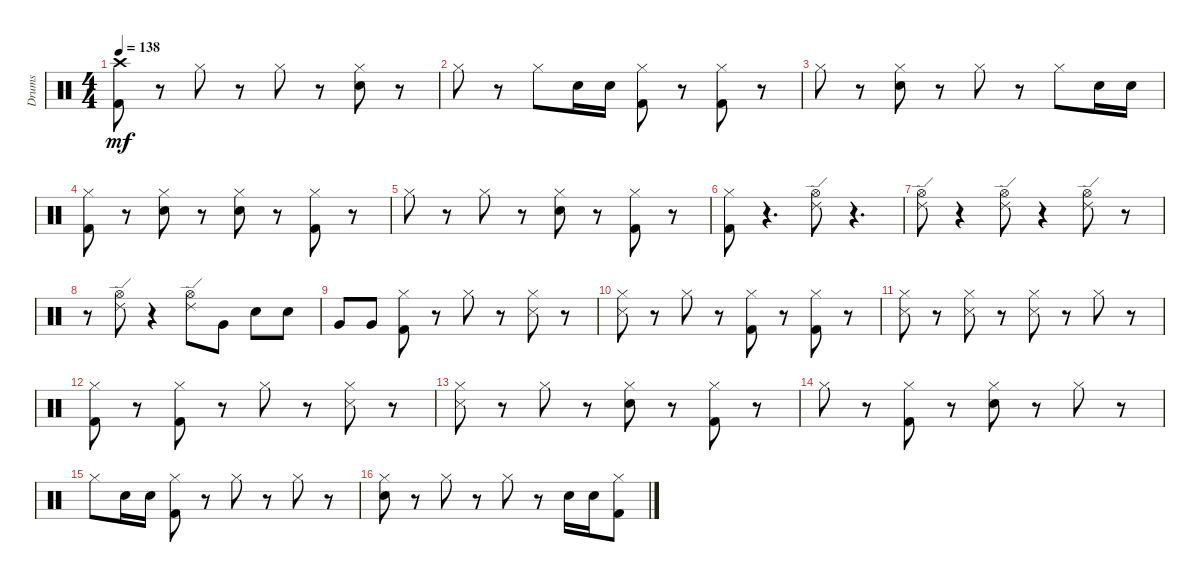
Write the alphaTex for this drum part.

\track ("Drums" "Drums") {instrument percussion}
\staff {score}
\articulation defaults
\ts (4 4)
\tempo 138
\clef neutral
\ks c
("Kick (hit) 2" "Crash high (hit)").8{dy mf} r.8 "Hi-Hat (closed)".8 r.8 "Hi-Hat (closed)".8 r.8 ("Electric Snare (hit)" "Hi-Hat (closed)").8 r.8 |
"Hi-Hat (closed)".8 r.8 "Hi-Hat (closed)".8 "Electric Snare (hit)".16 "Electric Snare (hit)".16 ("Kick (hit) 2" "Hi-Hat (closed)").8 r.8 ("Kick (hit) 2" "Hi-Hat (closed)").8 r.8 |
"Hi-Hat (closed)".8 r.8 ("Electric Snare (hit)" "Hi-Hat (closed)").8 r.8 "Hi-Hat (closed)".8 r.8 "Hi-Hat (closed)".8 "Electric Snare (hit)".16 "Electric Snare (hit)".16 |
("Kick (hit) 2" "Hi-Hat (closed)").8 r.8 ("Electric Snare (hit)" "Hi-Hat (closed)").8 r.8 ("Electric Snare (hit)" "Hi-Hat (closed)").8 r.8 ("Kick (hit) 2" "Hi-Hat (closed)").8 r.8 |
"Hi-Hat (closed)".8 r.8 "Hi-Hat (closed)".8 r.8 ("Electric Snare (hit)" "Hi-Hat (closed)").8 r.8 ("Kick (hit) 2" "Hi-Hat (closed)").8 r.8 |
("Kick (hit) 2" "Hi-Hat (closed)").8 r.4{d} ("Hi-Hat (open)" "Ride (edge) 2").8 r.4{d} |
("Hi-Hat (open)" "Ride (edge) 2").8 r.4 ("Hi-Hat (open)" "Ride (edge) 2").8 r.4 ("Hi-Hat (open)" "Ride (edge) 2").8 r.8 |
r.8 ("Hi-Hat (open)" "Ride (edge) 2").8 r.4 ("Hi-Hat (open)" "Ride (edge) 2").8 "Very Low Tom (hit)".8 "Electric Snare (hit)".8 "Electric Snare (hit)".8 |
"Very Low Tom (hit)".8 "Very Low Tom (hit)".8 ("Kick (hit) 2" "Hi-Hat (closed)").8 r.8 "Hi-Hat (closed)".8 r.8 ("Snare (side stick) 3" "Hi-Hat (closed)").8 r.8 |
("Snare (side stick) 3" "Hi-Hat (closed)").8 r.8 "Hi-Hat (closed)".8 r.8 ("Kick (hit) 2" "Hi-Hat (closed)").8 r.8 ("Kick (hit) 2" "Hi-Hat (closed)").8 r.8 |
("Snare (side stick) 3" "Hi-Hat (closed)").8 r.8 ("Snare (side stick) 3" "Hi-Hat (closed)").8 r.8 ("Snare (side stick) 3" "Hi-Hat (closed)").8 r.8 "Hi-Hat (closed)".8 r.8 |
("Kick (hit) 2" "Hi-Hat (closed)").8 r.8 ("Kick (hit) 2" "Hi-Hat (closed)").8 r.8 "Hi-Hat (closed)".8 r.8 ("Snare (side stick) 3" "Hi-Hat (closed)").8 r.8 |
("Snare (side stick) 3" "Hi-Hat (closed)").8 r.8 "Hi-Hat (closed)".8 r.8 ("Electric Snare (hit)" "Hi-Hat (closed)").8 r.8 ("Kick (hit) 2" "Hi-Hat (closed)").8 r.8 |
"Hi-Hat (closed)".8 r.8 ("Kick (hit) 2" "Hi-Hat (closed)").8 r.8 ("Electric Snare (hit)" "Hi-Hat (closed)").8 r.8 "Hi-Hat (closed)".8 r.8 |
"Hi-Hat (closed)".8 "Electric Snare (hit)".16 "Electric Snare (hit)".16 ("Kick (hit) 2" "Hi-Hat (closed)").8 r.8 "Hi-Hat (closed)".8 r.8 "Hi-Hat (closed)".8 r.8 |
("Electric Snare (hit)" "Hi-Hat (closed)").8 r.8 "Hi-Hat (closed)".8 r.8 "Hi-Hat (closed)".8 r.8 "Electric Snare (hit)".16 "Electric Snare (hit)".16 ("Kick (hit) 2" "Hi-Hat (closed)").8
